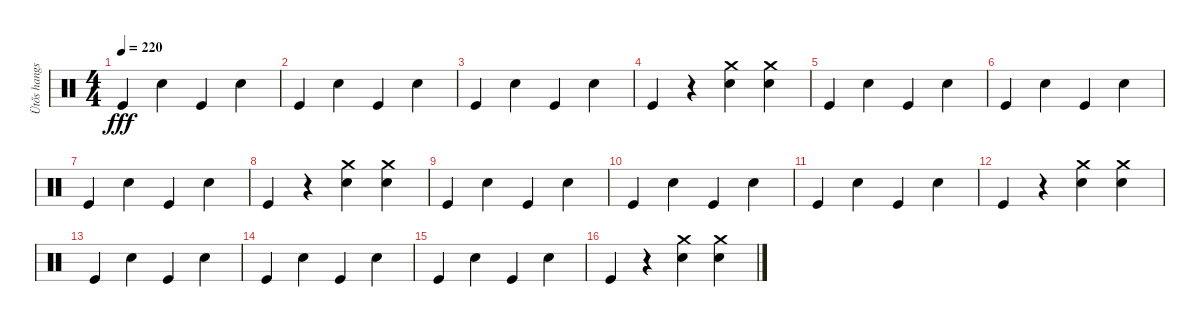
\track ("Ütős hangszer" "Ütős hangs") {instrument percussion}
\staff {score}
\articulation defaults
\ts (4 4)
\tempo 220
\clef neutral
\ks c "Kick (hit)".4{dy fff} "Snare (hit) 2".4 "Kick (hit)".4 "Snare (hit) 2".4
|
"Kick (hit)".4 "Snare (hit) 2".4 "Kick (hit)".4 "Snare (hit) 2".4 |
"Kick (hit)".4 "Snare (hit) 2".4 "Kick (hit)".4 "Snare (hit) 2".4 |
"Kick (hit)".4 r.4 ("Crash medium (hit)" "Snare (hit) 2").4 ("Crash medium (hit)" "Snare (hit) 2").4 |
"Kick (hit)".4 "Snare (hit) 2".4 "Kick (hit)".4 "Snare (hit) 2".4 |
"Kick (hit)".4 "Snare (hit) 2".4 "Kick (hit)".4 "Snare (hit) 2".4 |
"Kick (hit)".4 "Snare (hit) 2".4 "Kick (hit)".4 "Snare (hit) 2".4 |
"Kick (hit)".4 r.4 ("Crash medium (hit)" "Snare (hit) 2").4 ("Crash medium (hit)" "Snare (hit) 2").4 |
"Kick (hit)".4 "Snare (hit) 2".4 "Kick (hit)".4 "Snare (hit) 2".4 |
"Kick (hit)".4 "Snare (hit) 2".4 "Kick (hit)".4 "Snare (hit) 2".4 |
"Kick (hit)".4 "Snare (hit) 2".4 "Kick (hit)".4 "Snare (hit) 2".4 |
"Kick (hit)".4 r.4 ("Crash medium (hit)" "Snare (hit) 2").4 ("Crash medium (hit)" "Snare (hit) 2").4 |
"Kick (hit)".4 "Snare (hit) 2".4 "Kick (hit)".4 "Snare (hit) 2".4 |
"Kick (hit)".4 "Snare (hit) 2".4 "Kick (hit)".4 "Snare (hit) 2".4 |
"Kick (hit)".4 "Snare (hit) 2".4 "Kick (hit)".4 "Snare (hit) 2".4 |
"Kick (hit)".4 r.4 ("Crash medium (hit)" "Snare (hit) 2").4 ("Crash medium (hit)" "Snare (hit) 2").4
